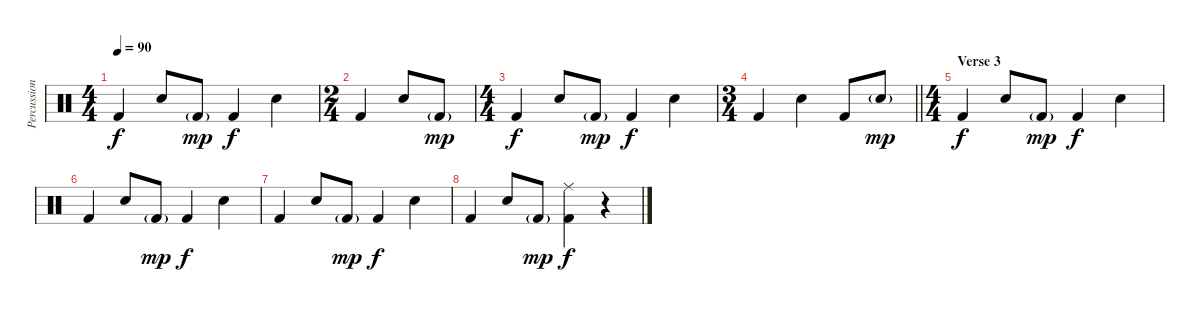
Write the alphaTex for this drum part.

\track ("Percussion" "Percussion") {instrument percussion}
\staff {score}
\articulation defaults
\ts (4 4)
\tempo 90
\clef neutral
\ks c "Kick (hit) 2".4{dy f} "Snare (hit) 2".8 "Kick (hit) 2"{g}.8{dy mp} "Kick (hit) 2".4{dy f} "Snare (hit) 2".4
|
\ts (2 4)
"Kick (hit) 2".4 "Snare (hit) 2".8 "Kick (hit) 2"{g}.8{dy mp} |
\ts (4 4)
"Kick (hit) 2".4{dy f} "Snare (hit) 2".8 "Kick (hit) 2"{g}.8{dy mp} "Kick (hit) 2".4{dy f} "Snare (hit) 2".4 |
\ts (3 4)
\barLineRight lightlight "Kick (hit) 2".4 "Snare (hit) 2".4 "Kick (hit) 2".8 "Snare (hit) 2"{g}.8{dy mp}
|
\ts (4 4)
\section ("" "Verse 3")
"Kick (hit) 2".4{dy f} "Snare (hit) 2".8 "Kick (hit) 2"{g}.8{dy mp} "Kick (hit) 2".4{dy f} "Snare (hit) 2".4 |
"Kick (hit) 2".4 "Snare (hit) 2".8 "Kick (hit) 2"{g}.8{dy mp} "Kick (hit) 2".4{dy f} "Snare (hit) 2".4 |
"Kick (hit) 2".4 "Snare (hit) 2".8 "Kick (hit) 2"{g}.8{dy mp} "Kick (hit) 2".4{dy f} "Snare (hit) 2".4 |
"Kick (hit) 2".4 "Snare (hit) 2".8 "Kick (hit) 2"{g}.8{dy mp} ("Ride (middle)" "Kick (hit) 2").4{dy f} r.4
